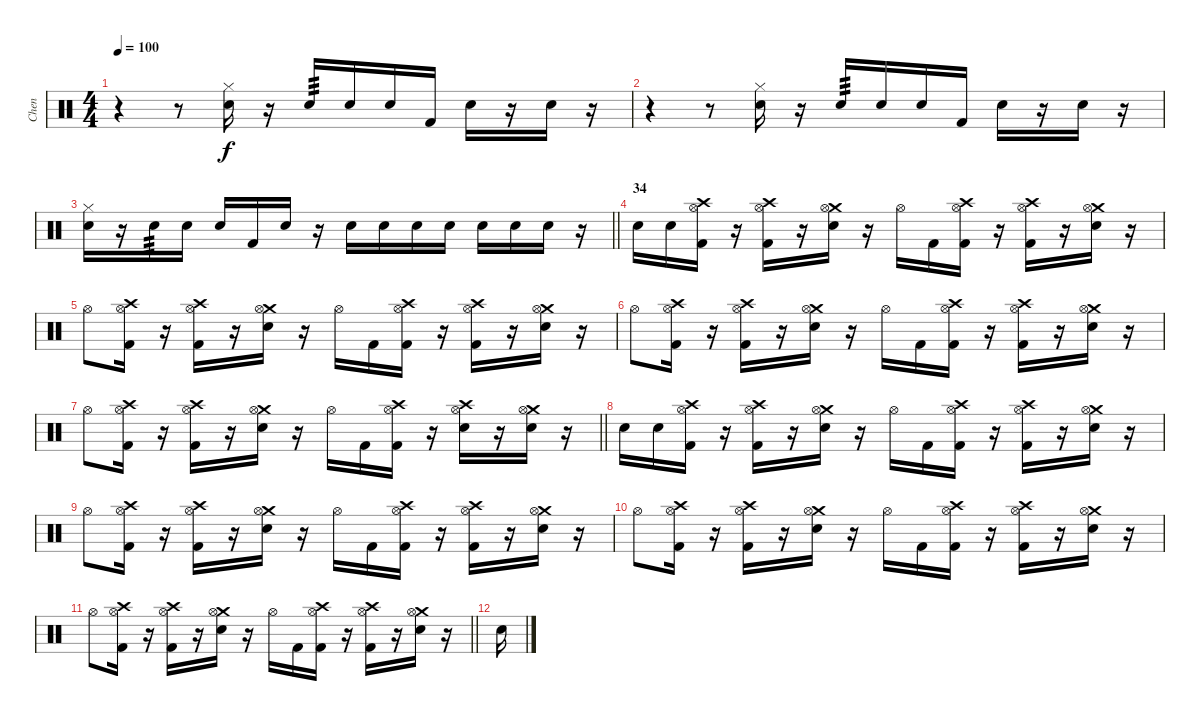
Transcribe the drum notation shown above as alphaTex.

\track ("Chen" "Chen") {instrument percussion}
\staff {score}
\articulation defaults
\ts (4 4)
\tempo 100
\clef neutral
\ks c
r.4{dy f} r.8 ("Hi-Hat (closed)" "Electric Snare (hit)").16 r.16 "Electric Snare (hit)".16{tp 3} "Electric Snare (hit)".16 "Electric Snare (hit)".16 "Kick (hit) 2".16 "Electric Snare (hit)".16 r.16 "Electric Snare (hit)".16 r.16 |
r.4 r.8 ("Hi-Hat (closed)" "Electric Snare (hit)").16 r.16 "Electric Snare (hit)".16{tp 3} "Electric Snare (hit)".16 "Electric Snare (hit)".16 "Kick (hit) 2".16 "Electric Snare (hit)".16 r.16 "Electric Snare (hit)".16 r.16 |
\barLineRight lightlight
("Hi-Hat (closed)" "Electric Snare (hit)").16 r.16 "Electric Snare (hit)".16{tp 3} "Electric Snare (hit)".16 "Electric Snare (hit)".16 "Kick (hit) 2".16 "Electric Snare (hit)".16 r.16 "Electric Snare (hit)".16 "Electric Snare (hit)".16 "Electric Snare (hit)".16 "Electric Snare (hit)".16 "Electric Snare (hit)".16 "Electric Snare (hit)".16 "Electric Snare (hit)".16 r.16 |
\section ("" "34")
"Electric Snare (hit)".16 "Electric Snare (hit)".16 ("Crash high (hit)" "Hi-Hat (open)" "Kick (hit) 2").16 r.16 ("Crash high (hit)" "Hi-Hat (open)" "Kick (hit) 2").16 r.16 ("Crash medium (hit)" "Hi-Hat (open)" "Electric Snare (hit)").16 r.16 "Hi-Hat (open)".16 "Kick (hit) 2".16 ("Crash high (hit)" "Hi-Hat (open)" "Kick (hit) 2").16 r.16 ("Crash high (hit)" "Hi-Hat (open)" "Kick (hit) 2").16 r.16 ("Crash medium (hit)" "Hi-Hat (open)" "Electric Snare (hit)").16 r.16 |
"Hi-Hat (open)".8 ("Crash high (hit)" "Hi-Hat (open)" "Kick (hit) 2").16 r.16 ("Crash high (hit)" "Hi-Hat (open)" "Kick (hit) 2").16 r.16 ("Crash medium (hit)" "Hi-Hat (open)" "Electric Snare (hit)").16 r.16 "Hi-Hat (open)".16 "Kick (hit) 2".16 ("Crash high (hit)" "Hi-Hat (open)" "Kick (hit) 2").16 r.16 ("Crash high (hit)" "Hi-Hat (open)" "Kick (hit) 2").16 r.16 ("Crash medium (hit)" "Hi-Hat (open)" "Electric Snare (hit)").16 r.16 |
"Hi-Hat (open)".8 ("Crash high (hit)" "Hi-Hat (open)" "Kick (hit) 2").16 r.16 ("Crash high (hit)" "Hi-Hat (open)" "Kick (hit) 2").16 r.16 ("Crash medium (hit)" "Hi-Hat (open)" "Electric Snare (hit)").16 r.16 "Hi-Hat (open)".16 "Kick (hit) 2".16 ("Crash high (hit)" "Hi-Hat (open)" "Kick (hit) 2").16 r.16 ("Crash high (hit)" "Hi-Hat (open)" "Kick (hit) 2").16 r.16 ("Crash medium (hit)" "Hi-Hat (open)" "Electric Snare (hit)").16 r.16 |
\barLineRight lightlight "Hi-Hat (open)".8
("Crash high (hit)" "Hi-Hat (open)" "Kick (hit) 2").16 r.16 ("Crash high (hit)" "Hi-Hat (open)" "Kick (hit) 2").16 r.16 ("Crash medium (hit)" "Hi-Hat (open)" "Electric Snare (hit)").16 r.16 "Hi-Hat (open)".16 "Kick (hit) 2".16 ("Crash high (hit)" "Hi-Hat (open)" "Kick (hit) 2").16 r.16 ("Crash high (hit)" "Hi-Hat (open)" "Electric Snare (hit)").16 r.16 ("Crash medium (hit)" "Hi-Hat (open)" "Electric Snare (hit)").16 r.16 |
"Electric Snare (hit)".16 "Electric Snare (hit)".16 ("Crash high (hit)" "Hi-Hat (open)" "Kick (hit) 2").16 r.16 ("Crash high (hit)" "Hi-Hat (open)" "Kick (hit) 2").16 r.16 ("Crash medium (hit)" "Hi-Hat (open)" "Electric Snare (hit)").16 r.16 "Hi-Hat (open)".16 "Kick (hit) 2".16 ("Crash high (hit)" "Hi-Hat (open)" "Kick (hit) 2").16 r.16 ("Crash high (hit)" "Hi-Hat (open)" "Kick (hit) 2").16 r.16 ("Crash medium (hit)" "Hi-Hat (open)" "Electric Snare (hit)").16 r.16 |
"Hi-Hat (open)".8 ("Crash high (hit)" "Hi-Hat (open)" "Kick (hit) 2").16 r.16 ("Crash high (hit)" "Hi-Hat (open)" "Kick (hit) 2").16 r.16 ("Crash medium (hit)" "Hi-Hat (open)" "Electric Snare (hit)").16 r.16 "Hi-Hat (open)".16 "Kick (hit) 2".16 ("Crash high (hit)" "Hi-Hat (open)" "Kick (hit) 2").16 r.16 ("Crash high (hit)" "Hi-Hat (open)" "Kick (hit) 2").16 r.16 ("Crash medium (hit)" "Hi-Hat (open)" "Electric Snare (hit)").16 r.16 |
"Hi-Hat (open)".8 ("Crash high (hit)" "Hi-Hat (open)" "Kick (hit) 2").16 r.16 ("Crash high (hit)" "Hi-Hat (open)" "Kick (hit) 2").16 r.16 ("Crash medium (hit)" "Hi-Hat (open)" "Electric Snare (hit)").16 r.16 "Hi-Hat (open)".16 "Kick (hit) 2".16 ("Crash high (hit)" "Hi-Hat (open)" "Kick (hit) 2").16 r.16 ("Crash high (hit)" "Hi-Hat (open)" "Kick (hit) 2").16 r.16 ("Crash medium (hit)" "Hi-Hat (open)" "Electric Snare (hit)").16 r.16 |
\barLineRight lightlight "Hi-Hat (open)".8
("Crash high (hit)" "Hi-Hat (open)" "Kick (hit) 2").16 r.16 ("Crash high (hit)" "Hi-Hat (open)" "Kick (hit) 2").16 r.16 ("Crash medium (hit)" "Hi-Hat (open)" "Electric Snare (hit)").16 r.16 "Hi-Hat (open)".16 "Kick (hit) 2".16 ("Crash high (hit)" "Hi-Hat (open)" "Kick (hit) 2").16 r.16 ("Crash high (hit)" "Hi-Hat (open)" "Kick (hit) 2").16 r.16 ("Crash medium (hit)" "Hi-Hat (open)" "Electric Snare (hit)").16 r.16 |
"Electric Snare (hit)".16
